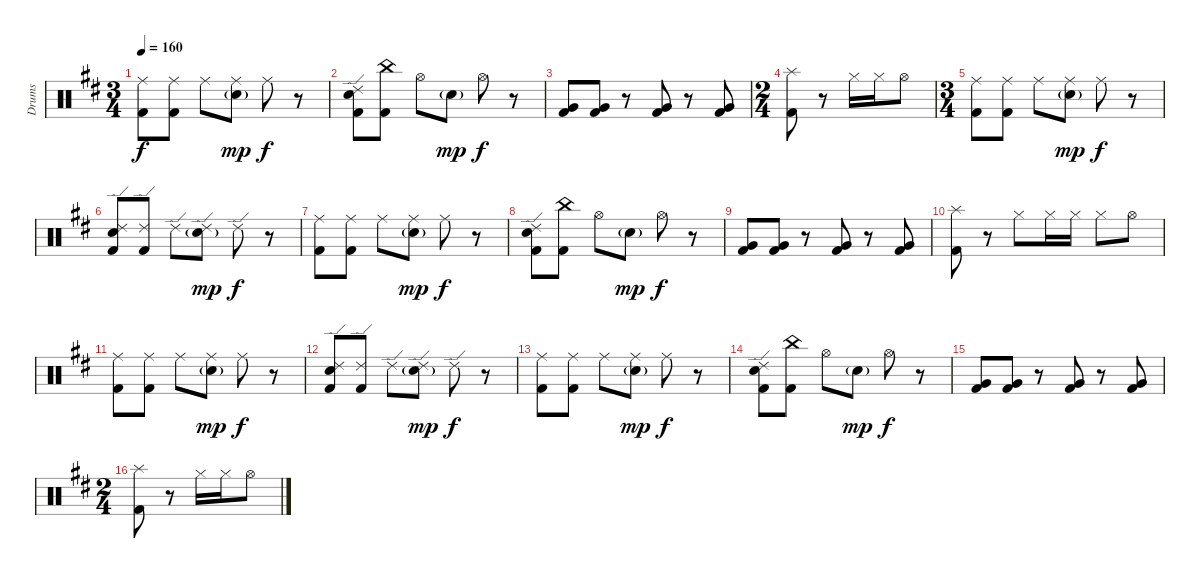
\track ("Drums" "Drums") {instrument percussion}
\staff {score}
\articulation defaults
\ts (3 4)
\tempo 160
\clef neutral
\ks bminor
("Ride (middle)" "Kick (hit) 2").8{dy f} ("Ride (middle)" "Kick (hit) 2").8 "Ride (middle)".8 ("Ride (middle)" "Snare (hit) 2"{g}).8{dy mp} "Ride (middle)".8{dy f} r.8 |
("Ride (edge) 2" "Snare (hit) 2" "Kick (hit) 2").8 ("China (hit)" "Kick (hit) 2").8 "Hi-Hat (open)".8 "Snare (hit) 2"{g}.8{dy mp} "Hi-Hat (open)".8{dy f} r.8 |
("Very Low Tom (hit)" "Kick (hit) 2").8 ("Very Low Tom (hit)" "Kick (hit) 2").8 r.8 ("Very Low Tom (hit)" "Kick (hit) 2").8 r.8 ("Very Low Tom (hit)" "Kick (hit) 2").8 |
\ts (2 4)
("Splash (hit)" "Kick (hit) 2").8 r.8 "Hi-Hat (closed)".16 "Hi-Hat (closed)".16 "Hi-Hat (open)".8 |
\ts (3 4)
("Ride (middle)" "Kick (hit) 2").8 ("Ride (middle)" "Kick (hit) 2").8 "Ride (middle)".8 ("Ride (middle)" "Snare (hit) 2"{g}).8{dy mp} "Ride (middle)".8{dy f} r.8 |
("Ride (edge) 2" "Snare (hit) 2" "Kick (hit) 2").8 ("Ride (edge) 2" "Kick (hit) 2").8 "Ride (edge) 2".8 ("Ride (edge) 2" "Snare (hit) 2"{g}).8{dy mp} "Ride (edge) 2".8{dy f} r.8 |
("Ride (middle)" "Kick (hit) 2").8 ("Ride (middle)" "Kick (hit) 2").8 "Ride (middle)".8 ("Ride (middle)" "Snare (hit) 2"{g}).8{dy mp} "Ride (middle)".8{dy f} r.8 |
("Ride (edge) 2" "Snare (hit) 2" "Kick (hit) 2").8 ("China (hit)" "Kick (hit) 2").8 "Hi-Hat (open)".8 "Snare (hit) 2"{g}.8{dy mp} "Hi-Hat (open)".8{dy f} r.8 |
("Very Low Tom (hit)" "Kick (hit) 2").8 ("Very Low Tom (hit)" "Kick (hit) 2").8 r.8 ("Very Low Tom (hit)" "Kick (hit) 2").8 r.8 ("Very Low Tom (hit)" "Kick (hit) 2").8 |
("Splash (hit)" "Kick (hit) 2").8 r.8 "Hi-Hat (closed)".8 "Hi-Hat (closed)".16 "Hi-Hat (closed)".16 "Hi-Hat (closed)".8 "Hi-Hat (open)".8 |
("Ride (middle)" "Kick (hit) 2").8 ("Ride (middle)" "Kick (hit) 2").8 "Ride (middle)".8 ("Ride (middle)" "Snare (hit) 2"{g}).8{dy mp} "Ride (middle)".8{dy f} r.8 |
("Ride (edge) 2" "Snare (hit) 2" "Kick (hit) 2").8 ("Ride (edge) 2" "Kick (hit) 2").8 "Ride (edge) 2".8 ("Ride (edge) 2" "Snare (hit) 2"{g}).8{dy mp} "Ride (edge) 2".8{dy f} r.8 |
("Ride (middle)" "Kick (hit) 2").8 ("Ride (middle)" "Kick (hit) 2").8 "Ride (middle)".8 ("Ride (middle)" "Snare (hit) 2"{g}).8{dy mp} "Ride (middle)".8{dy f} r.8 |
("Ride (edge) 2" "Snare (hit) 2" "Kick (hit) 2").8 ("China (hit)" "Kick (hit) 2").8 "Hi-Hat (open)".8 "Snare (hit) 2"{g}.8{dy mp} "Hi-Hat (open)".8{dy f} r.8 |
("Very Low Tom (hit)" "Kick (hit) 2").8 ("Very Low Tom (hit)" "Kick (hit) 2").8 r.8 ("Very Low Tom (hit)" "Kick (hit) 2").8 r.8 ("Very Low Tom (hit)" "Kick (hit) 2").8 |
\ts (2 4)
("Splash (hit)" "Kick (hit) 2").8 r.8 "Hi-Hat (closed)".16 "Hi-Hat (closed)".16 "Hi-Hat (open)".8
